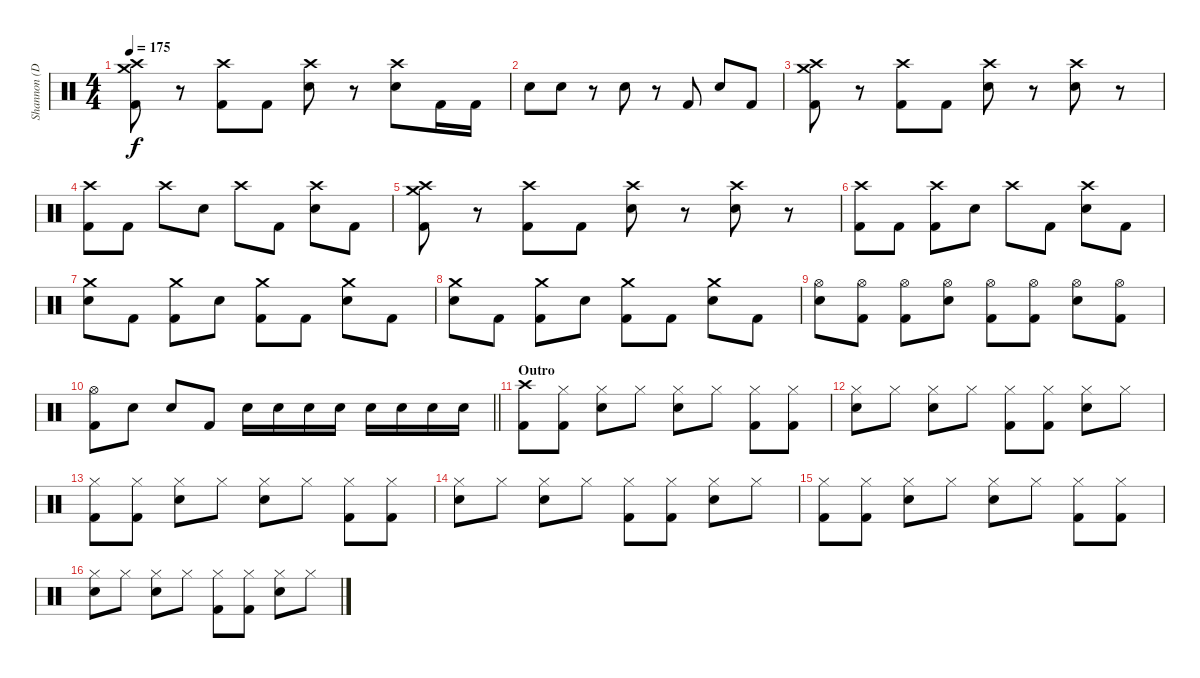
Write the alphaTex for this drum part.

\track ("Shannon (Drum)" "Shannon (D") {instrument percussion}
\staff {score}
\articulation defaults
\ts (4 4)
\tempo 175
\clef neutral
\ks c
("Crash high (hit)" "Crash medium (hit)" "Kick (hit) 2").8{dy f} r.8 ("Crash high (hit)" "Kick (hit) 2").8 "Kick (hit) 2".8 ("Crash high (hit)" "Electric Snare (hit)").8 r.8 ("Crash high (hit)" "Electric Snare (hit)").8 "Kick (hit) 2".16 "Kick (hit) 2".16 |
"Electric Snare (hit)".8 "Electric Snare (hit)".8 r.8 "Electric Snare (hit)".8 r.8 "Kick (hit) 2".8 "Electric Snare (hit)".8 "Kick (hit) 2".8 |
("Crash high (hit)" "Crash medium (hit)" "Kick (hit) 2").8 r.8 ("Crash high (hit)" "Kick (hit) 2").8 "Kick (hit) 2".8 ("Crash high (hit)" "Electric Snare (hit)").8 r.8 ("Crash high (hit)" "Electric Snare (hit)").8 r.8 |
("Crash high (hit)" "Kick (hit) 2").8 "Kick (hit) 2".8 "Crash high (hit)".8 "Electric Snare (hit)".8 "Crash high (hit)".8 "Kick (hit) 2".8 ("Crash high (hit)" "Electric Snare (hit)").8 "Kick (hit) 2".8 |
("Crash high (hit)" "Crash medium (hit)" "Kick (hit) 2").8 r.8 ("Crash high (hit)" "Kick (hit) 2").8 "Kick (hit) 2".8 ("Crash high (hit)" "Electric Snare (hit)").8 r.8 ("Crash high (hit)" "Electric Snare (hit)").8 r.8 |
("Crash high (hit)" "Kick (hit) 2").8 "Kick (hit) 2".8 ("Crash high (hit)" "Kick (hit) 2").8 "Electric Snare (hit)".8 "Crash high (hit)".8 "Kick (hit) 2".8 ("Crash high (hit)" "Electric Snare (hit)").8 "Kick (hit) 2".8 |
("Crash medium (hit)" "Electric Snare (hit)").8 "Kick (hit) 2".8 ("Crash medium (hit)" "Kick (hit) 2").8 "Electric Snare (hit)".8 ("Crash medium (hit)" "Kick (hit) 2").8 "Kick (hit) 2".8 ("Crash medium (hit)" "Electric Snare (hit)").8 "Kick (hit) 2".8 |
("Crash medium (hit)" "Electric Snare (hit)").8 "Kick (hit) 2".8 ("Crash medium (hit)" "Kick (hit) 2").8 "Electric Snare (hit)".8 ("Crash medium (hit)" "Kick (hit) 2").8 "Kick (hit) 2".8 ("Crash medium (hit)" "Electric Snare (hit)").8 "Kick (hit) 2".8 |
("Hi-Hat (open)" "Electric Snare (hit)").8 ("Hi-Hat (open)" "Kick (hit) 2").8 ("Hi-Hat (open)" "Kick (hit) 2").8 ("Hi-Hat (open)" "Electric Snare (hit)").8 ("Hi-Hat (open)" "Kick (hit) 2").8 ("Hi-Hat (open)" "Kick (hit) 2").8 ("Hi-Hat (open)" "Electric Snare (hit)").8 ("Hi-Hat (open)" "Kick (hit) 2").8 |
\barLineRight lightlight
("Hi-Hat (open)" "Kick (hit) 2").8 "Electric Snare (hit)".8 "Electric Snare (hit)".8 "Kick (hit) 2".8 "Electric Snare (hit)".16 "Electric Snare (hit)".16 "Electric Snare (hit)".16 "Electric Snare (hit)".16 "Electric Snare (hit)".16 "Electric Snare (hit)".16 "Electric Snare (hit)".16 "Electric Snare (hit)".16 |
\section ("" "Outro")
("Crash high (hit)" "Kick (hit) 2").8 ("Hi-Hat (closed)" "Kick (hit) 2").8 ("Hi-Hat (closed)" "Electric Snare (hit)").8 "Hi-Hat (closed)".8 ("Hi-Hat (closed)" "Electric Snare (hit)").8 "Hi-Hat (closed)".8 ("Hi-Hat (closed)" "Kick (hit) 2").8 ("Hi-Hat (closed)" "Kick (hit) 2").8 |
("Hi-Hat (closed)" "Electric Snare (hit)").8 "Hi-Hat (closed)".8 ("Hi-Hat (closed)" "Electric Snare (hit)").8 "Hi-Hat (closed)".8 ("Hi-Hat (closed)" "Kick (hit) 2").8 ("Hi-Hat (closed)" "Kick (hit) 2").8 ("Hi-Hat (closed)" "Electric Snare (hit)").8 "Hi-Hat (closed)".8 |
("Hi-Hat (closed)" "Kick (hit) 2").8 ("Hi-Hat (closed)" "Kick (hit) 2").8 ("Hi-Hat (closed)" "Electric Snare (hit)").8 "Hi-Hat (closed)".8 ("Hi-Hat (closed)" "Electric Snare (hit)").8 "Hi-Hat (closed)".8 ("Hi-Hat (closed)" "Kick (hit) 2").8 ("Hi-Hat (closed)" "Kick (hit) 2").8 |
("Hi-Hat (closed)" "Electric Snare (hit)").8 "Hi-Hat (closed)".8 ("Hi-Hat (closed)" "Electric Snare (hit)").8 "Hi-Hat (closed)".8 ("Hi-Hat (closed)" "Kick (hit) 2").8 ("Hi-Hat (closed)" "Kick (hit) 2").8 ("Hi-Hat (closed)" "Electric Snare (hit)").8 "Hi-Hat (closed)".8 |
("Hi-Hat (closed)" "Kick (hit) 2").8 ("Hi-Hat (closed)" "Kick (hit) 2").8 ("Hi-Hat (closed)" "Electric Snare (hit)").8 "Hi-Hat (closed)".8 ("Hi-Hat (closed)" "Electric Snare (hit)").8 "Hi-Hat (closed)".8 ("Hi-Hat (closed)" "Kick (hit) 2").8 ("Hi-Hat (closed)" "Kick (hit) 2").8 |
("Hi-Hat (closed)" "Electric Snare (hit)").8 "Hi-Hat (closed)".8 ("Hi-Hat (closed)" "Electric Snare (hit)").8 "Hi-Hat (closed)".8 ("Hi-Hat (closed)" "Kick (hit) 2").8 ("Hi-Hat (closed)" "Kick (hit) 2").8 ("Hi-Hat (closed)" "Electric Snare (hit)").8 "Hi-Hat (closed)".8
